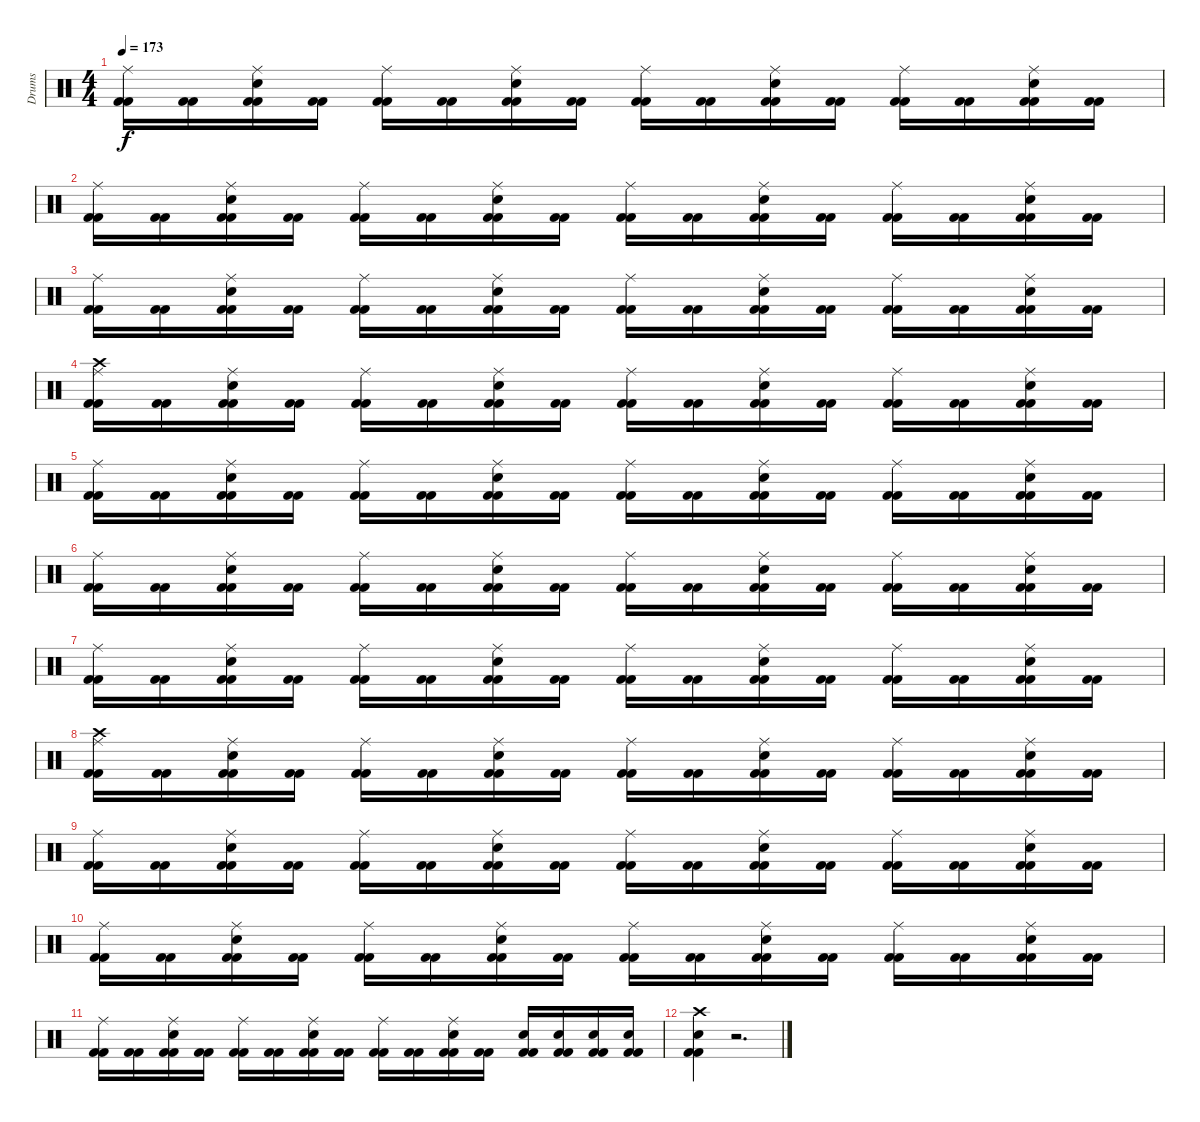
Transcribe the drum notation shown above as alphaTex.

\track ("Drums" "Drums") {instrument percussion}
\staff {score}
\articulation defaults
\ts (4 4)
\tempo 173
\clef neutral
\ks c
("Kick (hit) 2" "Kick (hit) 2" "Ride (middle)").16{dy f} ("Kick (hit) 2" "Kick (hit) 2").16 ("Kick (hit) 2" "Kick (hit) 2" "Ride (middle)" "Electric Snare (hit)").16 ("Kick (hit) 2" "Kick (hit) 2").16 ("Kick (hit) 2" "Kick (hit) 2" "Ride (middle)").16 ("Kick (hit) 2" "Kick (hit) 2").16 ("Kick (hit) 2" "Kick (hit) 2" "Ride (middle)" "Electric Snare (hit)").16 ("Kick (hit) 2" "Kick (hit) 2").16 ("Kick (hit) 2" "Kick (hit) 2" "Ride (middle)").16 ("Kick (hit) 2" "Kick (hit) 2").16 ("Kick (hit) 2" "Kick (hit) 2" "Ride (middle)" "Electric Snare (hit)").16 ("Kick (hit) 2" "Kick (hit) 2").16 ("Kick (hit) 2" "Kick (hit) 2" "Ride (middle)").16 ("Kick (hit) 2" "Kick (hit) 2").16 ("Kick (hit) 2" "Kick (hit) 2" "Ride (middle)" "Electric Snare (hit)").16 ("Kick (hit) 2" "Kick (hit) 2").16 |
("Kick (hit) 2" "Kick (hit) 2" "Ride (middle)").16 ("Kick (hit) 2" "Kick (hit) 2").16 ("Kick (hit) 2" "Kick (hit) 2" "Ride (middle)" "Electric Snare (hit)").16 ("Kick (hit) 2" "Kick (hit) 2").16 ("Kick (hit) 2" "Kick (hit) 2" "Ride (middle)").16 ("Kick (hit) 2" "Kick (hit) 2").16 ("Kick (hit) 2" "Kick (hit) 2" "Ride (middle)" "Electric Snare (hit)").16 ("Kick (hit) 2" "Kick (hit) 2").16 ("Kick (hit) 2" "Kick (hit) 2" "Ride (middle)").16 ("Kick (hit) 2" "Kick (hit) 2").16 ("Kick (hit) 2" "Kick (hit) 2" "Ride (middle)" "Electric Snare (hit)").16 ("Kick (hit) 2" "Kick (hit) 2").16 ("Kick (hit) 2" "Kick (hit) 2" "Ride (middle)").16 ("Kick (hit) 2" "Kick (hit) 2").16 ("Kick (hit) 2" "Kick (hit) 2" "Ride (middle)" "Electric Snare (hit)").16 ("Kick (hit) 2" "Kick (hit) 2").16 |
("Kick (hit) 2" "Kick (hit) 2" "Ride (middle)").16 ("Kick (hit) 2" "Kick (hit) 2").16 ("Kick (hit) 2" "Kick (hit) 2" "Ride (middle)" "Electric Snare (hit)").16 ("Kick (hit) 2" "Kick (hit) 2").16 ("Kick (hit) 2" "Kick (hit) 2" "Ride (middle)").16 ("Kick (hit) 2" "Kick (hit) 2").16 ("Kick (hit) 2" "Kick (hit) 2" "Ride (middle)" "Electric Snare (hit)").16 ("Kick (hit) 2" "Kick (hit) 2").16 ("Kick (hit) 2" "Kick (hit) 2" "Ride (middle)").16 ("Kick (hit) 2" "Kick (hit) 2").16 ("Kick (hit) 2" "Kick (hit) 2" "Ride (middle)" "Electric Snare (hit)").16 ("Kick (hit) 2" "Kick (hit) 2").16 ("Kick (hit) 2" "Kick (hit) 2" "Ride (middle)").16 ("Kick (hit) 2" "Kick (hit) 2").16 ("Kick (hit) 2" "Kick (hit) 2" "Ride (middle)" "Electric Snare (hit)").16 ("Kick (hit) 2" "Kick (hit) 2").16 |
("Kick (hit) 2" "Kick (hit) 2" "Ride (middle)" "Crash high (hit)").16 ("Kick (hit) 2" "Kick (hit) 2").16 ("Kick (hit) 2" "Kick (hit) 2" "Ride (middle)" "Electric Snare (hit)").16 ("Kick (hit) 2" "Kick (hit) 2").16 ("Kick (hit) 2" "Kick (hit) 2" "Ride (middle)").16 ("Kick (hit) 2" "Kick (hit) 2").16 ("Kick (hit) 2" "Kick (hit) 2" "Ride (middle)" "Electric Snare (hit)").16 ("Kick (hit) 2" "Kick (hit) 2").16 ("Kick (hit) 2" "Kick (hit) 2" "Ride (middle)").16 ("Kick (hit) 2" "Kick (hit) 2").16 ("Kick (hit) 2" "Kick (hit) 2" "Ride (middle)" "Electric Snare (hit)").16 ("Kick (hit) 2" "Kick (hit) 2").16 ("Kick (hit) 2" "Kick (hit) 2" "Ride (middle)").16 ("Kick (hit) 2" "Kick (hit) 2").16 ("Kick (hit) 2" "Kick (hit) 2" "Ride (middle)" "Electric Snare (hit)").16 ("Kick (hit) 2" "Kick (hit) 2").16 |
("Kick (hit) 2" "Kick (hit) 2" "Ride (middle)").16 ("Kick (hit) 2" "Kick (hit) 2").16 ("Kick (hit) 2" "Kick (hit) 2" "Ride (middle)" "Electric Snare (hit)").16 ("Kick (hit) 2" "Kick (hit) 2").16 ("Kick (hit) 2" "Kick (hit) 2" "Ride (middle)").16 ("Kick (hit) 2" "Kick (hit) 2").16 ("Kick (hit) 2" "Kick (hit) 2" "Ride (middle)" "Electric Snare (hit)").16 ("Kick (hit) 2" "Kick (hit) 2").16 ("Kick (hit) 2" "Kick (hit) 2" "Ride (middle)").16 ("Kick (hit) 2" "Kick (hit) 2").16 ("Kick (hit) 2" "Kick (hit) 2" "Ride (middle)" "Electric Snare (hit)").16 ("Kick (hit) 2" "Kick (hit) 2").16 ("Kick (hit) 2" "Kick (hit) 2" "Ride (middle)").16 ("Kick (hit) 2" "Kick (hit) 2").16 ("Kick (hit) 2" "Kick (hit) 2" "Ride (middle)" "Electric Snare (hit)").16 ("Kick (hit) 2" "Kick (hit) 2").16 |
("Kick (hit) 2" "Kick (hit) 2" "Ride (middle)").16 ("Kick (hit) 2" "Kick (hit) 2").16 ("Kick (hit) 2" "Kick (hit) 2" "Ride (middle)" "Electric Snare (hit)").16 ("Kick (hit) 2" "Kick (hit) 2").16 ("Kick (hit) 2" "Kick (hit) 2" "Ride (middle)").16 ("Kick (hit) 2" "Kick (hit) 2").16 ("Kick (hit) 2" "Kick (hit) 2" "Ride (middle)" "Electric Snare (hit)").16 ("Kick (hit) 2" "Kick (hit) 2").16 ("Kick (hit) 2" "Kick (hit) 2" "Ride (middle)").16 ("Kick (hit) 2" "Kick (hit) 2").16 ("Kick (hit) 2" "Kick (hit) 2" "Ride (middle)" "Electric Snare (hit)").16 ("Kick (hit) 2" "Kick (hit) 2").16 ("Kick (hit) 2" "Kick (hit) 2" "Ride (middle)").16 ("Kick (hit) 2" "Kick (hit) 2").16 ("Kick (hit) 2" "Kick (hit) 2" "Ride (middle)" "Electric Snare (hit)").16 ("Kick (hit) 2" "Kick (hit) 2").16 |
("Kick (hit) 2" "Kick (hit) 2" "Ride (middle)").16 ("Kick (hit) 2" "Kick (hit) 2").16 ("Kick (hit) 2" "Kick (hit) 2" "Ride (middle)" "Electric Snare (hit)").16 ("Kick (hit) 2" "Kick (hit) 2").16 ("Kick (hit) 2" "Kick (hit) 2" "Ride (middle)").16 ("Kick (hit) 2" "Kick (hit) 2").16 ("Kick (hit) 2" "Kick (hit) 2" "Ride (middle)" "Electric Snare (hit)").16 ("Kick (hit) 2" "Kick (hit) 2").16 ("Kick (hit) 2" "Kick (hit) 2" "Ride (middle)").16 ("Kick (hit) 2" "Kick (hit) 2").16 ("Kick (hit) 2" "Kick (hit) 2" "Ride (middle)" "Electric Snare (hit)").16 ("Kick (hit) 2" "Kick (hit) 2").16 ("Kick (hit) 2" "Kick (hit) 2" "Ride (middle)").16 ("Kick (hit) 2" "Kick (hit) 2").16 ("Kick (hit) 2" "Kick (hit) 2" "Ride (middle)" "Electric Snare (hit)").16 ("Kick (hit) 2" "Kick (hit) 2").16 |
("Kick (hit) 2" "Kick (hit) 2" "Ride (middle)" "Crash high (hit)").16 ("Kick (hit) 2" "Kick (hit) 2").16 ("Kick (hit) 2" "Kick (hit) 2" "Ride (middle)" "Electric Snare (hit)").16 ("Kick (hit) 2" "Kick (hit) 2").16 ("Kick (hit) 2" "Kick (hit) 2" "Ride (middle)").16 ("Kick (hit) 2" "Kick (hit) 2").16 ("Kick (hit) 2" "Kick (hit) 2" "Ride (middle)" "Electric Snare (hit)").16 ("Kick (hit) 2" "Kick (hit) 2").16 ("Kick (hit) 2" "Kick (hit) 2" "Ride (middle)").16 ("Kick (hit) 2" "Kick (hit) 2").16 ("Kick (hit) 2" "Kick (hit) 2" "Ride (middle)" "Electric Snare (hit)").16 ("Kick (hit) 2" "Kick (hit) 2").16 ("Kick (hit) 2" "Kick (hit) 2" "Ride (middle)").16 ("Kick (hit) 2" "Kick (hit) 2").16 ("Kick (hit) 2" "Kick (hit) 2" "Ride (middle)" "Electric Snare (hit)").16 ("Kick (hit) 2" "Kick (hit) 2").16 |
("Kick (hit) 2" "Kick (hit) 2" "Ride (middle)").16 ("Kick (hit) 2" "Kick (hit) 2").16 ("Kick (hit) 2" "Kick (hit) 2" "Ride (middle)" "Electric Snare (hit)").16 ("Kick (hit) 2" "Kick (hit) 2").16 ("Kick (hit) 2" "Kick (hit) 2" "Ride (middle)").16 ("Kick (hit) 2" "Kick (hit) 2").16 ("Kick (hit) 2" "Kick (hit) 2" "Ride (middle)" "Electric Snare (hit)").16 ("Kick (hit) 2" "Kick (hit) 2").16 ("Kick (hit) 2" "Kick (hit) 2" "Ride (middle)").16 ("Kick (hit) 2" "Kick (hit) 2").16 ("Kick (hit) 2" "Kick (hit) 2" "Ride (middle)" "Electric Snare (hit)").16 ("Kick (hit) 2" "Kick (hit) 2").16 ("Kick (hit) 2" "Kick (hit) 2" "Ride (middle)").16 ("Kick (hit) 2" "Kick (hit) 2").16 ("Kick (hit) 2" "Kick (hit) 2" "Ride (middle)" "Electric Snare (hit)").16 ("Kick (hit) 2" "Kick (hit) 2").16 |
("Kick (hit) 2" "Kick (hit) 2" "Ride (middle)").16 ("Kick (hit) 2" "Kick (hit) 2").16 ("Kick (hit) 2" "Kick (hit) 2" "Ride (middle)" "Electric Snare (hit)").16 ("Kick (hit) 2" "Kick (hit) 2").16 ("Kick (hit) 2" "Kick (hit) 2" "Ride (middle)").16 ("Kick (hit) 2" "Kick (hit) 2").16 ("Kick (hit) 2" "Kick (hit) 2" "Ride (middle)" "Electric Snare (hit)").16 ("Kick (hit) 2" "Kick (hit) 2").16 ("Kick (hit) 2" "Kick (hit) 2" "Ride (middle)").16 ("Kick (hit) 2" "Kick (hit) 2").16 ("Kick (hit) 2" "Kick (hit) 2" "Ride (middle)" "Electric Snare (hit)").16 ("Kick (hit) 2" "Kick (hit) 2").16 ("Kick (hit) 2" "Kick (hit) 2" "Ride (middle)").16 ("Kick (hit) 2" "Kick (hit) 2").16 ("Kick (hit) 2" "Kick (hit) 2" "Ride (middle)" "Electric Snare (hit)").16 ("Kick (hit) 2" "Kick (hit) 2").16 |
("Kick (hit) 2" "Kick (hit) 2" "Ride (middle)").16 ("Kick (hit) 2" "Kick (hit) 2").16 ("Kick (hit) 2" "Kick (hit) 2" "Ride (middle)" "Electric Snare (hit)").16 ("Kick (hit) 2" "Kick (hit) 2").16 ("Kick (hit) 2" "Kick (hit) 2" "Ride (middle)").16 ("Kick (hit) 2" "Kick (hit) 2").16 ("Kick (hit) 2" "Kick (hit) 2" "Ride (middle)" "Electric Snare (hit)").16 ("Kick (hit) 2" "Kick (hit) 2").16 ("Kick (hit) 2" "Kick (hit) 2" "Ride (middle)").16 ("Kick (hit) 2" "Kick (hit) 2").16 ("Kick (hit) 2" "Kick (hit) 2" "Ride (middle)" "Electric Snare (hit)").16 ("Kick (hit) 2" "Kick (hit) 2").16 ("Kick (hit) 2" "Kick (hit) 2" "Electric Snare (hit)").16 ("Kick (hit) 2" "Kick (hit) 2" "Electric Snare (hit)").16 ("Kick (hit) 2" "Kick (hit) 2" "Electric Snare (hit)").16 ("Kick (hit) 2" "Kick (hit) 2" "Electric Snare (hit)").16 |
("Kick (hit) 2" "Kick (hit) 2" "Electric Snare (hit)" "Crash high (hit)").4 r.2{d}
